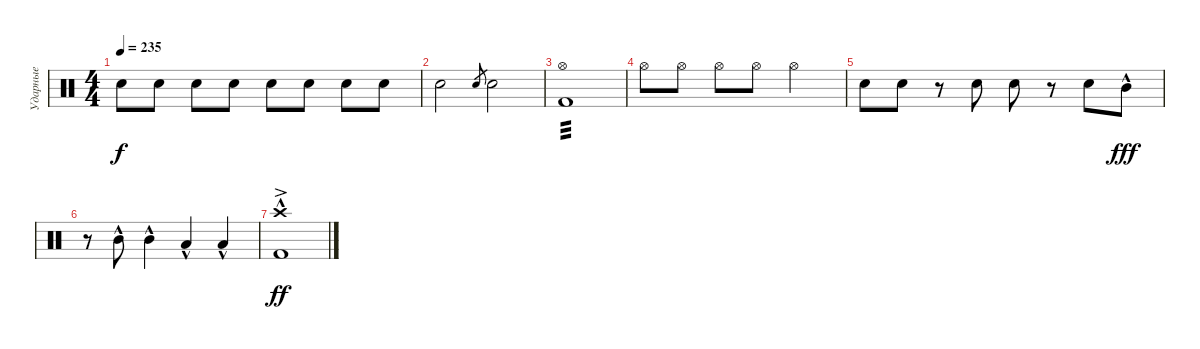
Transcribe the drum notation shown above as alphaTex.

\track ("Ударные" "Ударные") {instrument percussion}
\staff {score}
\articulation defaults
\ts (4 4)
\tempo 235
\clef neutral
\ks c "Snare (hit) 2".8{dy f} "Snare (hit) 2".8 "Snare (hit) 2".8 "Snare (hit) 2".8 "Snare (hit) 2".8 "Snare (hit) 2".8 "Snare (hit) 2".8 "Snare (hit) 2".8
|
"Snare (hit) 2".2 "Snare (hit) 2".8{gr} "Snare (hit) 2".2 |
("Hi-Hat (open)" "Kick (hit) 2").1{tp 3} |
"Hi-Hat (open)".8 "Hi-Hat (open)".8 "Hi-Hat (open)".8 "Hi-Hat (open)".8 "Hi-Hat (open)".2 |
"Snare (hit) 2".8 "Snare (hit) 2".8 r.8 "Snare (hit) 2".8 "Snare (hit) 2".8 r.8 "Snare (hit) 2".8 "Mid Tom (hit)"{hac}.8{dy fff} |
r.8 "Mid Tom (hit)"{hac}.8 "Mid Tom (hit)"{hac}.4 "Low Tom (hit)"{hac}.4 "Low Tom (hit)"{hac}.4 |
("Kick (hit) 2"{hac} "Crash high (hit)"{ac}).1{dy ff}
